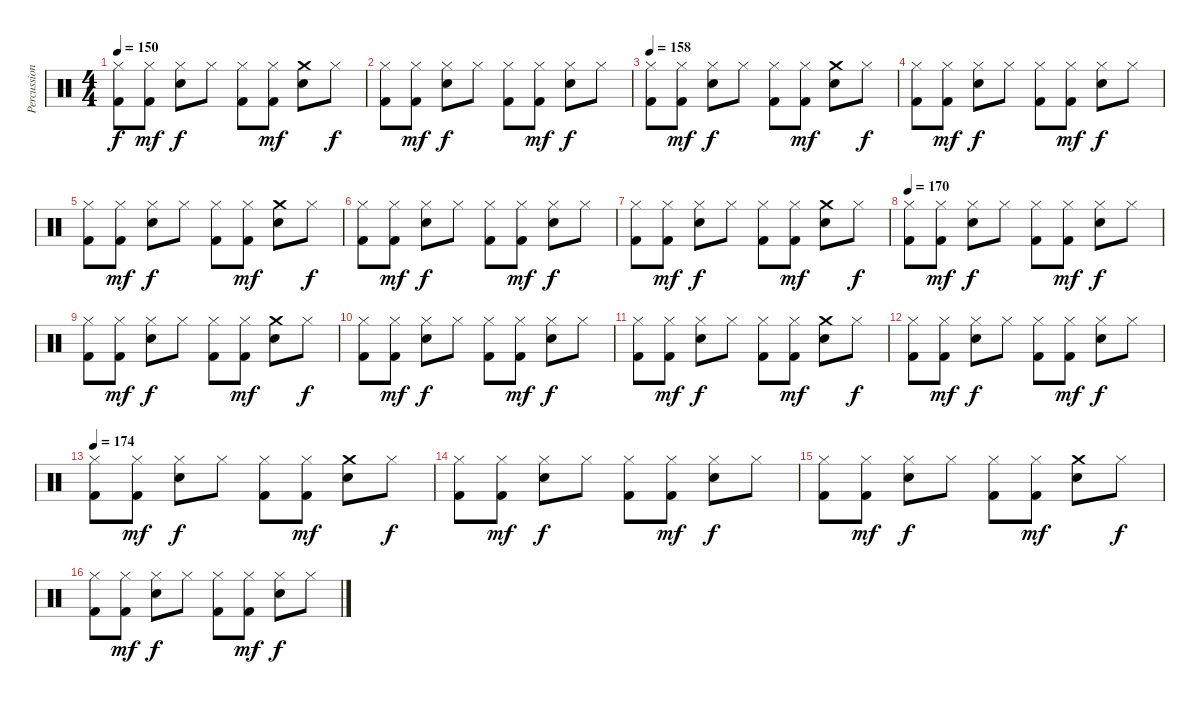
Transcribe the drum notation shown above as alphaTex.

\track ("Percussion" "Percussion") {instrument percussion}
\staff {score}
\articulation defaults
\ts (4 4)
\tempo 150
\clef neutral
\ks c
("Hi-Hat (closed)" "Kick (hit) 2").8{dy f} ("Hi-Hat (closed)" "Kick (hit) 2").8{dy mf} ("Hi-Hat (closed)" "Snare (hit) 2").8{dy f} "Hi-Hat (closed)".8 ("Hi-Hat (closed)" "Kick (hit) 2").8 ("Hi-Hat (closed)" "Kick (hit) 2").8{dy mf} ("Crash medium (hit)" "Snare (hit) 2").8 "Hi-Hat (closed)".8{dy f} |
("Hi-Hat (closed)" "Kick (hit) 2").8 ("Hi-Hat (closed)" "Kick (hit) 2").8{dy mf} ("Hi-Hat (closed)" "Snare (hit) 2").8{dy f} "Hi-Hat (closed)".8 ("Hi-Hat (closed)" "Kick (hit) 2").8 ("Hi-Hat (closed)" "Kick (hit) 2").8{dy mf} ("Hi-Hat (closed)" "Snare (hit) 2").8{dy f} "Hi-Hat (closed)".8 |
\tempo 158
("Hi-Hat (closed)" "Kick (hit) 2").8 ("Hi-Hat (closed)" "Kick (hit) 2").8{dy mf} ("Hi-Hat (closed)" "Snare (hit) 2").8{dy f} "Hi-Hat (closed)".8 ("Hi-Hat (closed)" "Kick (hit) 2").8 ("Hi-Hat (closed)" "Kick (hit) 2").8{dy mf} ("Crash medium (hit)" "Snare (hit) 2").8 "Hi-Hat (closed)".8{dy f} |
("Hi-Hat (closed)" "Kick (hit) 2").8 ("Hi-Hat (closed)" "Kick (hit) 2").8{dy mf} ("Hi-Hat (closed)" "Snare (hit) 2").8{dy f} "Hi-Hat (closed)".8 ("Hi-Hat (closed)" "Kick (hit) 2").8 ("Hi-Hat (closed)" "Kick (hit) 2").8{dy mf} ("Hi-Hat (closed)" "Snare (hit) 2").8{dy f} "Hi-Hat (closed)".8 |
("Hi-Hat (closed)" "Kick (hit) 2").8 ("Hi-Hat (closed)" "Kick (hit) 2").8{dy mf} ("Hi-Hat (closed)" "Snare (hit) 2").8{dy f} "Hi-Hat (closed)".8 ("Hi-Hat (closed)" "Kick (hit) 2").8 ("Hi-Hat (closed)" "Kick (hit) 2").8{dy mf} ("Crash medium (hit)" "Snare (hit) 2").8 "Hi-Hat (closed)".8{dy f} |
("Hi-Hat (closed)" "Kick (hit) 2").8 ("Hi-Hat (closed)" "Kick (hit) 2").8{dy mf} ("Hi-Hat (closed)" "Snare (hit) 2").8{dy f} "Hi-Hat (closed)".8 ("Hi-Hat (closed)" "Kick (hit) 2").8 ("Hi-Hat (closed)" "Kick (hit) 2").8{dy mf} ("Hi-Hat (closed)" "Snare (hit) 2").8{dy f} "Hi-Hat (closed)".8 |
("Hi-Hat (closed)" "Kick (hit) 2").8 ("Hi-Hat (closed)" "Kick (hit) 2").8{dy mf} ("Hi-Hat (closed)" "Snare (hit) 2").8{dy f} "Hi-Hat (closed)".8 ("Hi-Hat (closed)" "Kick (hit) 2").8 ("Hi-Hat (closed)" "Kick (hit) 2").8{dy mf} ("Crash medium (hit)" "Snare (hit) 2").8 "Hi-Hat (closed)".8{dy f} |
\tempo 170
("Hi-Hat (closed)" "Kick (hit) 2").8 ("Hi-Hat (closed)" "Kick (hit) 2").8{dy mf} ("Hi-Hat (closed)" "Snare (hit) 2").8{dy f} "Hi-Hat (closed)".8 ("Hi-Hat (closed)" "Kick (hit) 2").8 ("Hi-Hat (closed)" "Kick (hit) 2").8{dy mf} ("Hi-Hat (closed)" "Snare (hit) 2").8{dy f} "Hi-Hat (closed)".8 |
("Hi-Hat (closed)" "Kick (hit) 2").8 ("Hi-Hat (closed)" "Kick (hit) 2").8{dy mf} ("Hi-Hat (closed)" "Snare (hit) 2").8{dy f} "Hi-Hat (closed)".8 ("Hi-Hat (closed)" "Kick (hit) 2").8 ("Hi-Hat (closed)" "Kick (hit) 2").8{dy mf} ("Crash medium (hit)" "Snare (hit) 2").8 "Hi-Hat (closed)".8{dy f} |
("Hi-Hat (closed)" "Kick (hit) 2").8 ("Hi-Hat (closed)" "Kick (hit) 2").8{dy mf} ("Hi-Hat (closed)" "Snare (hit) 2").8{dy f} "Hi-Hat (closed)".8 ("Hi-Hat (closed)" "Kick (hit) 2").8 ("Hi-Hat (closed)" "Kick (hit) 2").8{dy mf} ("Hi-Hat (closed)" "Snare (hit) 2").8{dy f} "Hi-Hat (closed)".8 |
("Hi-Hat (closed)" "Kick (hit) 2").8 ("Hi-Hat (closed)" "Kick (hit) 2").8{dy mf} ("Hi-Hat (closed)" "Snare (hit) 2").8{dy f} "Hi-Hat (closed)".8 ("Hi-Hat (closed)" "Kick (hit) 2").8 ("Hi-Hat (closed)" "Kick (hit) 2").8{dy mf} ("Crash medium (hit)" "Snare (hit) 2").8 "Hi-Hat (closed)".8{dy f} |
("Hi-Hat (closed)" "Kick (hit) 2").8 ("Hi-Hat (closed)" "Kick (hit) 2").8{dy mf} ("Hi-Hat (closed)" "Snare (hit) 2").8{dy f} "Hi-Hat (closed)".8 ("Hi-Hat (closed)" "Kick (hit) 2").8 ("Hi-Hat (closed)" "Kick (hit) 2").8{dy mf} ("Hi-Hat (closed)" "Snare (hit) 2").8{dy f} "Hi-Hat (closed)".8 |
\tempo 174
("Hi-Hat (closed)" "Kick (hit) 2").8 ("Hi-Hat (closed)" "Kick (hit) 2").8{dy mf} ("Hi-Hat (closed)" "Snare (hit) 2").8{dy f} "Hi-Hat (closed)".8 ("Hi-Hat (closed)" "Kick (hit) 2").8 ("Hi-Hat (closed)" "Kick (hit) 2").8{dy mf} ("Crash medium (hit)" "Snare (hit) 2").8 "Hi-Hat (closed)".8{dy f} |
("Hi-Hat (closed)" "Kick (hit) 2").8 ("Hi-Hat (closed)" "Kick (hit) 2").8{dy mf} ("Hi-Hat (closed)" "Snare (hit) 2").8{dy f} "Hi-Hat (closed)".8 ("Hi-Hat (closed)" "Kick (hit) 2").8 ("Hi-Hat (closed)" "Kick (hit) 2").8{dy mf} ("Hi-Hat (closed)" "Snare (hit) 2").8{dy f} "Hi-Hat (closed)".8 |
("Hi-Hat (closed)" "Kick (hit) 2").8 ("Hi-Hat (closed)" "Kick (hit) 2").8{dy mf} ("Hi-Hat (closed)" "Snare (hit) 2").8{dy f} "Hi-Hat (closed)".8 ("Hi-Hat (closed)" "Kick (hit) 2").8 ("Hi-Hat (closed)" "Kick (hit) 2").8{dy mf} ("Crash medium (hit)" "Snare (hit) 2").8 "Hi-Hat (closed)".8{dy f} |
("Hi-Hat (closed)" "Kick (hit) 2").8 ("Hi-Hat (closed)" "Kick (hit) 2").8{dy mf} ("Hi-Hat (closed)" "Snare (hit) 2").8{dy f} "Hi-Hat (closed)".8 ("Hi-Hat (closed)" "Kick (hit) 2").8 ("Hi-Hat (closed)" "Kick (hit) 2").8{dy mf} ("Hi-Hat (closed)" "Snare (hit) 2").8{dy f} "Hi-Hat (closed)".8
